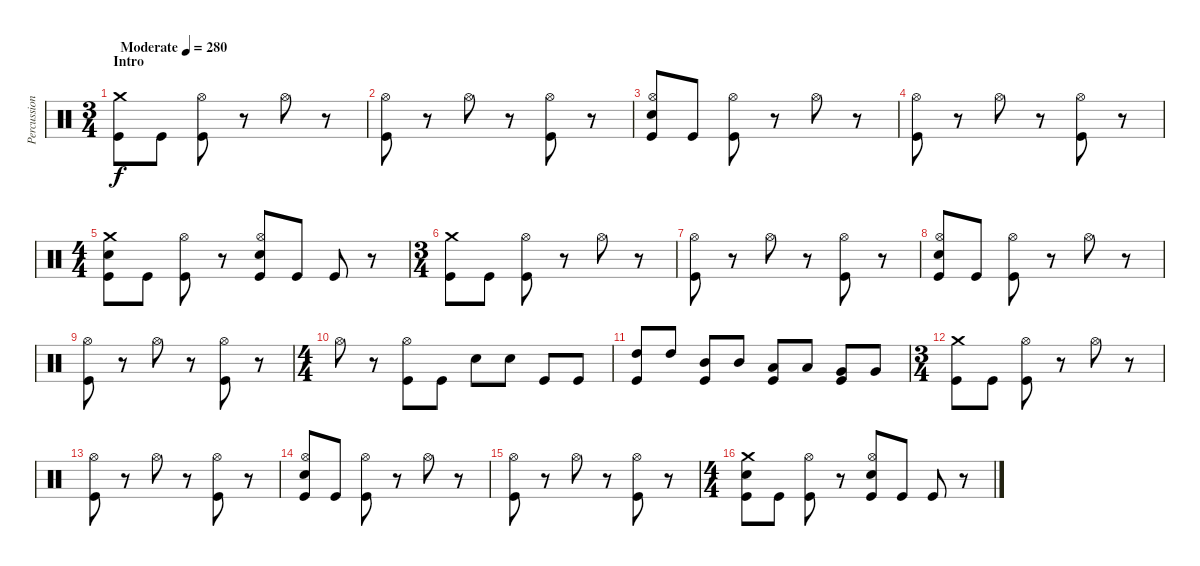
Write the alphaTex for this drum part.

\track ("Percussion" "Percussion") {instrument percussion}
\staff {score}
\articulation defaults
\ts (3 4)
\section ("" "Intro")
\tempo (280 "Moderate")
\clef neutral
\ks c
("Crash medium (hit)" "Kick (hit)").8{dy f} "Kick (hit)".8 ("Hi-Hat (open)" "Kick (hit)").8 r.8 "Hi-Hat (open)".8 r.8 |
("Hi-Hat (open)" "Kick (hit)").8 r.8 "Hi-Hat (open)".8 r.8 ("Hi-Hat (open)" "Kick (hit)").8 r.8 |
("Hi-Hat (open)" "Electric Snare (hit)" "Kick (hit)").8 "Kick (hit)".8 ("Hi-Hat (open)" "Kick (hit)").8 r.8 "Hi-Hat (open)".8 r.8 |
("Hi-Hat (open)" "Kick (hit)").8 r.8 "Hi-Hat (open)".8 r.8 ("Hi-Hat (open)" "Kick (hit)").8 r.8 |
\ts (4 4)
("Crash medium (hit)" "Electric Snare (hit)" "Kick (hit)").8 "Kick (hit)".8 ("Hi-Hat (open)" "Kick (hit)").8 r.8 ("Hi-Hat (open)" "Electric Snare (hit)" "Kick (hit)").8 "Kick (hit)".8 "Kick (hit)".8 r.8 |
\ts (3 4)
("Crash medium (hit)" "Kick (hit)").8 "Kick (hit)".8 ("Hi-Hat (open)" "Kick (hit)").8 r.8 "Hi-Hat (open)".8 r.8 |
("Hi-Hat (open)" "Kick (hit)").8 r.8 "Hi-Hat (open)".8 r.8 ("Hi-Hat (open)" "Kick (hit)").8 r.8 |
("Hi-Hat (open)" "Electric Snare (hit)" "Kick (hit)").8 "Kick (hit)".8 ("Hi-Hat (open)" "Kick (hit)").8 r.8 "Hi-Hat (open)".8 r.8 |
("Hi-Hat (open)" "Kick (hit)").8 r.8 "Hi-Hat (open)".8 r.8 ("Hi-Hat (open)" "Kick (hit)").8 r.8 |
\ts (4 4)
"Hi-Hat (open)".8 r.8 ("Hi-Hat (open)" "Kick (hit)").8 "Kick (hit)".8 "Electric Snare (hit)".8 "Electric Snare (hit)".8 "Kick (hit)".8 "Kick (hit)".8 |
("High Tom (hit)" "Kick (hit)").8 "High Tom (hit)".8 ("Mid Tom (hit)" "Kick (hit)").8 "Mid Tom (hit)".8 ("Low Tom (hit)" "Kick (hit)").8 "Low Tom (hit)".8 ("Very Low Tom (hit)" "Kick (hit)").8 "Very Low Tom (hit)".8 |
\ts (3 4)
("Crash medium (hit)" "Kick (hit)").8 "Kick (hit)".8 ("Hi-Hat (open)" "Kick (hit)").8 r.8 "Hi-Hat (open)".8 r.8 |
("Hi-Hat (open)" "Kick (hit)").8 r.8 "Hi-Hat (open)".8 r.8 ("Hi-Hat (open)" "Kick (hit)").8 r.8 |
("Hi-Hat (open)" "Electric Snare (hit)" "Kick (hit)").8 "Kick (hit)".8 ("Hi-Hat (open)" "Kick (hit)").8 r.8 "Hi-Hat (open)".8 r.8 |
("Hi-Hat (open)" "Kick (hit)").8 r.8 "Hi-Hat (open)".8 r.8 ("Hi-Hat (open)" "Kick (hit)").8 r.8 |
\ts (4 4)
("Crash medium (hit)" "Electric Snare (hit)" "Kick (hit)").8 "Kick (hit)".8 ("Hi-Hat (open)" "Kick (hit)").8 r.8 ("Hi-Hat (open)" "Electric Snare (hit)" "Kick (hit)").8 "Kick (hit)".8 "Kick (hit)".8 r.8
